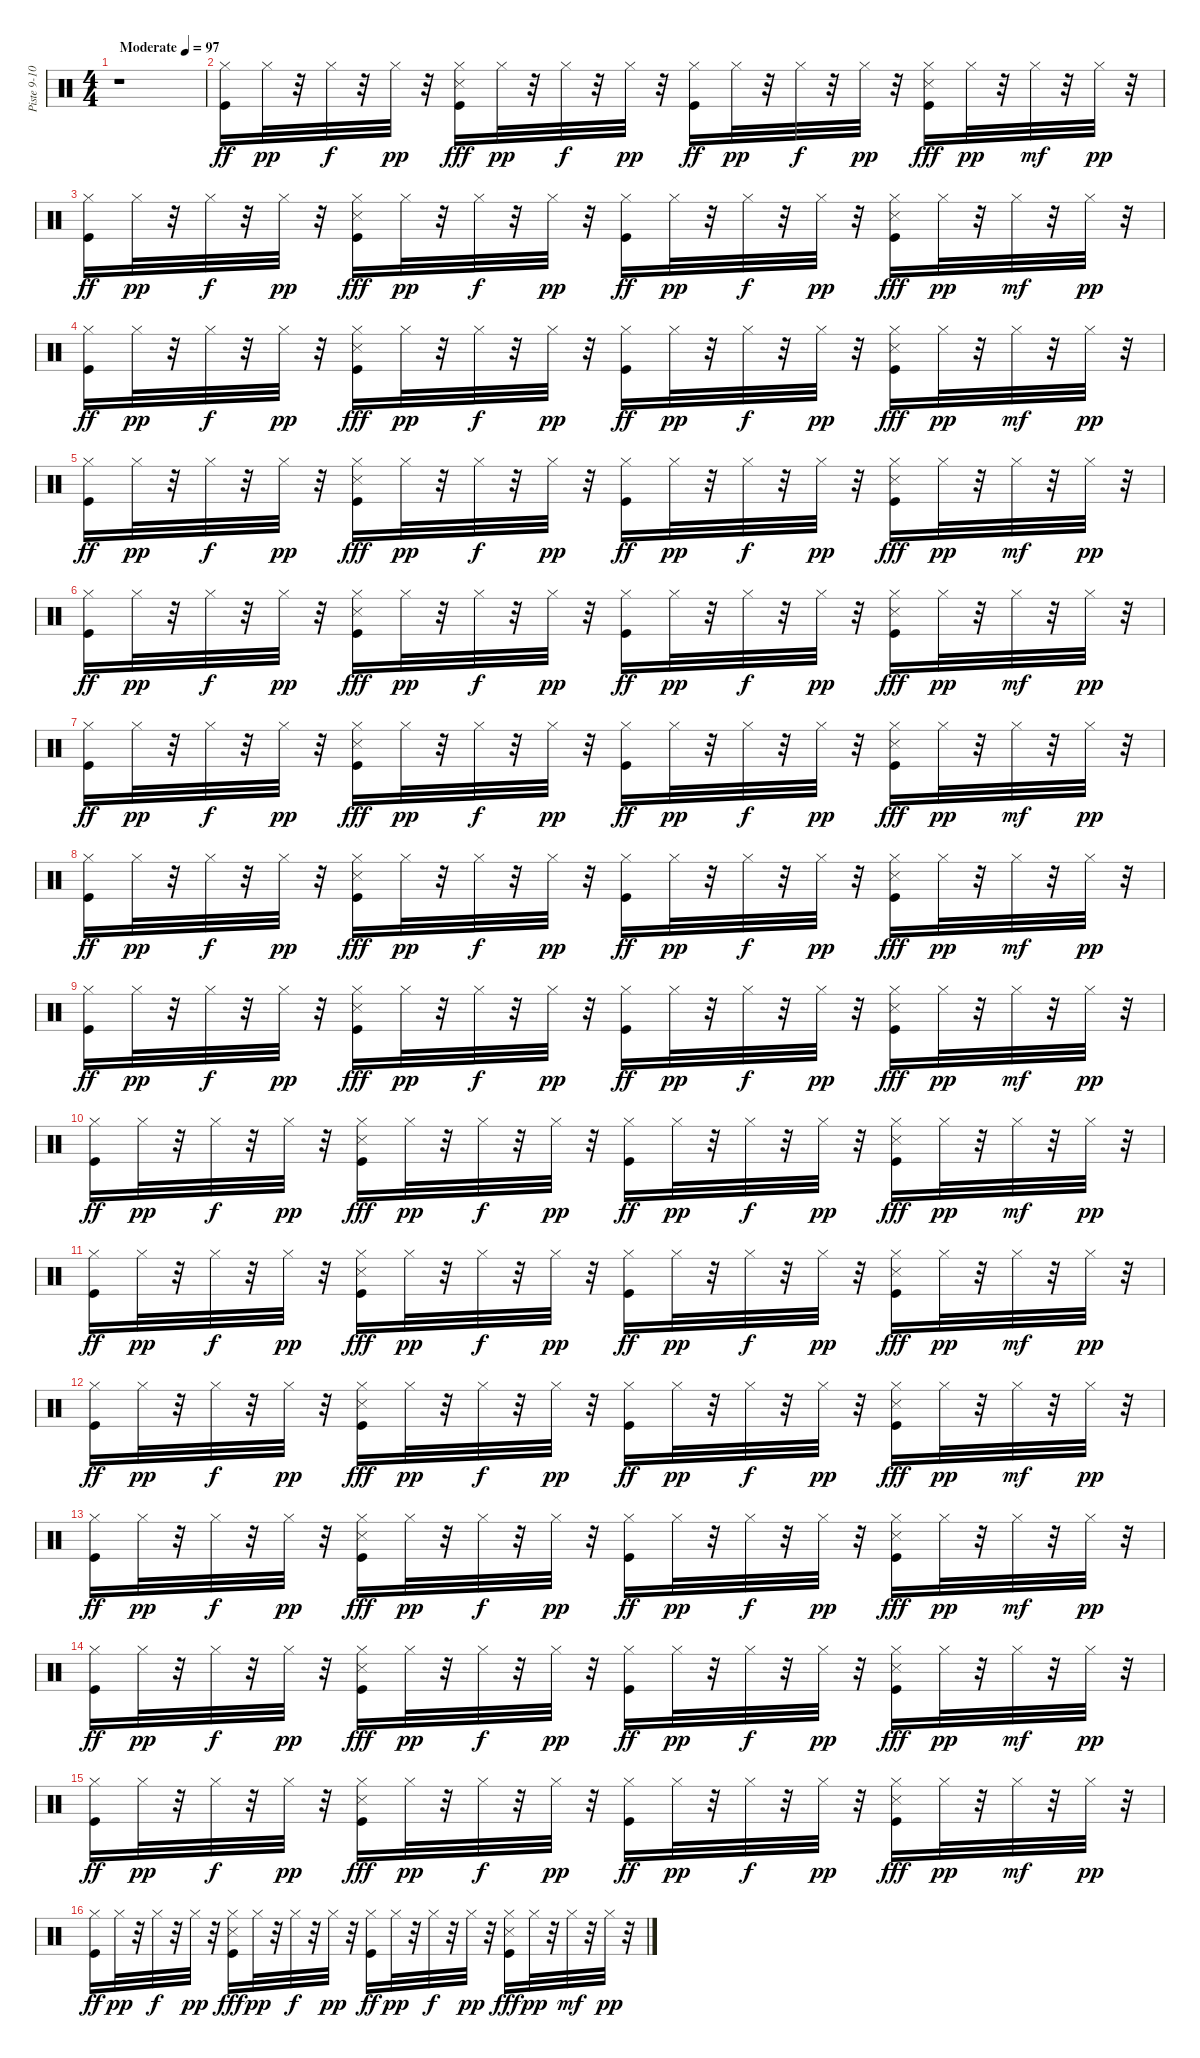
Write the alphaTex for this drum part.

\track ("Piste 9-10-11-12-13-14" "Piste 9-10") {instrument percussion}
\staff {score}
\articulation defaults
\ts (4 4)
\tempo (97 "Moderate")
\clef neutral
\ks c
r.1{dy ff} |
("Hi-Hat (closed)" "Kick (hit)").16 "Hi-Hat (closed)".32{dy pp} r.32 "Hi-Hat (closed)".32{dy f} r.32 "Hi-Hat (closed)".32{dy pp} r.32 ("Hi-Hat (closed)" "Kick (hit)" "Snare (side stick) 3").16{dy fff} "Hi-Hat (closed)".32{dy pp} r.32 "Hi-Hat (closed)".32{dy f} r.32 "Hi-Hat (closed)".32{dy pp} r.32 ("Hi-Hat (closed)" "Kick (hit)").16{dy ff} "Hi-Hat (closed)".32{dy pp} r.32 "Hi-Hat (closed)".32{dy f} r.32 "Hi-Hat (closed)".32{dy pp} r.32 ("Hi-Hat (closed)" "Kick (hit)" "Snare (side stick) 3").16{dy fff} "Hi-Hat (closed)".32{dy pp} r.32 "Hi-Hat (closed)".32{dy mf} r.32 "Hi-Hat (closed)".32{dy pp} r.32 |
("Hi-Hat (closed)" "Kick (hit)").16{dy ff} "Hi-Hat (closed)".32{dy pp} r.32 "Hi-Hat (closed)".32{dy f} r.32 "Hi-Hat (closed)".32{dy pp} r.32 ("Hi-Hat (closed)" "Kick (hit)" "Snare (side stick) 3").16{dy fff} "Hi-Hat (closed)".32{dy pp} r.32 "Hi-Hat (closed)".32{dy f} r.32 "Hi-Hat (closed)".32{dy pp} r.32 ("Hi-Hat (closed)" "Kick (hit)").16{dy ff} "Hi-Hat (closed)".32{dy pp} r.32 "Hi-Hat (closed)".32{dy f} r.32 "Hi-Hat (closed)".32{dy pp} r.32 ("Hi-Hat (closed)" "Kick (hit)" "Snare (side stick) 3").16{dy fff} "Hi-Hat (closed)".32{dy pp} r.32 "Hi-Hat (closed)".32{dy mf} r.32 "Hi-Hat (closed)".32{dy pp} r.32 |
("Hi-Hat (closed)" "Kick (hit)").16{dy ff} "Hi-Hat (closed)".32{dy pp} r.32 "Hi-Hat (closed)".32{dy f} r.32 "Hi-Hat (closed)".32{dy pp} r.32 ("Hi-Hat (closed)" "Kick (hit)" "Snare (side stick) 3").16{dy fff} "Hi-Hat (closed)".32{dy pp} r.32 "Hi-Hat (closed)".32{dy f} r.32 "Hi-Hat (closed)".32{dy pp} r.32 ("Hi-Hat (closed)" "Kick (hit)").16{dy ff} "Hi-Hat (closed)".32{dy pp} r.32 "Hi-Hat (closed)".32{dy f} r.32 "Hi-Hat (closed)".32{dy pp} r.32 ("Hi-Hat (closed)" "Kick (hit)" "Snare (side stick) 3").16{dy fff} "Hi-Hat (closed)".32{dy pp} r.32 "Hi-Hat (closed)".32{dy mf} r.32 "Hi-Hat (closed)".32{dy pp} r.32 |
("Hi-Hat (closed)" "Kick (hit)").16{dy ff} "Hi-Hat (closed)".32{dy pp} r.32 "Hi-Hat (closed)".32{dy f} r.32 "Hi-Hat (closed)".32{dy pp} r.32 ("Hi-Hat (closed)" "Kick (hit)" "Snare (side stick) 3").16{dy fff} "Hi-Hat (closed)".32{dy pp} r.32 "Hi-Hat (closed)".32{dy f} r.32 "Hi-Hat (closed)".32{dy pp} r.32 ("Hi-Hat (closed)" "Kick (hit)").16{dy ff} "Hi-Hat (closed)".32{dy pp} r.32 "Hi-Hat (closed)".32{dy f} r.32 "Hi-Hat (closed)".32{dy pp} r.32 ("Hi-Hat (closed)" "Kick (hit)" "Snare (side stick) 3").16{dy fff} "Hi-Hat (closed)".32{dy pp} r.32 "Hi-Hat (closed)".32{dy mf} r.32 "Hi-Hat (closed)".32{dy pp} r.32 |
("Hi-Hat (closed)" "Kick (hit)").16{dy ff} "Hi-Hat (closed)".32{dy pp} r.32 "Hi-Hat (closed)".32{dy f} r.32 "Hi-Hat (closed)".32{dy pp} r.32 ("Hi-Hat (closed)" "Kick (hit)" "Snare (side stick) 3").16{dy fff} "Hi-Hat (closed)".32{dy pp} r.32 "Hi-Hat (closed)".32{dy f} r.32 "Hi-Hat (closed)".32{dy pp} r.32 ("Hi-Hat (closed)" "Kick (hit)").16{dy ff} "Hi-Hat (closed)".32{dy pp} r.32 "Hi-Hat (closed)".32{dy f} r.32 "Hi-Hat (closed)".32{dy pp} r.32 ("Hi-Hat (closed)" "Kick (hit)" "Snare (side stick) 3").16{dy fff} "Hi-Hat (closed)".32{dy pp} r.32 "Hi-Hat (closed)".32{dy mf} r.32 "Hi-Hat (closed)".32{dy pp} r.32 |
("Hi-Hat (closed)" "Kick (hit)").16{dy ff} "Hi-Hat (closed)".32{dy pp} r.32 "Hi-Hat (closed)".32{dy f} r.32 "Hi-Hat (closed)".32{dy pp} r.32 ("Hi-Hat (closed)" "Kick (hit)" "Snare (side stick) 3").16{dy fff} "Hi-Hat (closed)".32{dy pp} r.32 "Hi-Hat (closed)".32{dy f} r.32 "Hi-Hat (closed)".32{dy pp} r.32 ("Hi-Hat (closed)" "Kick (hit)").16{dy ff} "Hi-Hat (closed)".32{dy pp} r.32 "Hi-Hat (closed)".32{dy f} r.32 "Hi-Hat (closed)".32{dy pp} r.32 ("Hi-Hat (closed)" "Kick (hit)" "Snare (side stick) 3").16{dy fff} "Hi-Hat (closed)".32{dy pp} r.32 "Hi-Hat (closed)".32{dy mf} r.32 "Hi-Hat (closed)".32{dy pp} r.32 |
("Hi-Hat (closed)" "Kick (hit)").16{dy ff} "Hi-Hat (closed)".32{dy pp} r.32 "Hi-Hat (closed)".32{dy f} r.32 "Hi-Hat (closed)".32{dy pp} r.32 ("Hi-Hat (closed)" "Kick (hit)" "Snare (side stick) 3").16{dy fff} "Hi-Hat (closed)".32{dy pp} r.32 "Hi-Hat (closed)".32{dy f} r.32 "Hi-Hat (closed)".32{dy pp} r.32 ("Hi-Hat (closed)" "Kick (hit)").16{dy ff} "Hi-Hat (closed)".32{dy pp} r.32 "Hi-Hat (closed)".32{dy f} r.32 "Hi-Hat (closed)".32{dy pp} r.32 ("Hi-Hat (closed)" "Kick (hit)" "Snare (side stick) 3").16{dy fff} "Hi-Hat (closed)".32{dy pp} r.32 "Hi-Hat (closed)".32{dy mf} r.32 "Hi-Hat (closed)".32{dy pp} r.32 |
("Hi-Hat (closed)" "Kick (hit)").16{dy ff} "Hi-Hat (closed)".32{dy pp} r.32 "Hi-Hat (closed)".32{dy f} r.32 "Hi-Hat (closed)".32{dy pp} r.32 ("Hi-Hat (closed)" "Kick (hit)" "Snare (side stick) 3").16{dy fff} "Hi-Hat (closed)".32{dy pp} r.32 "Hi-Hat (closed)".32{dy f} r.32 "Hi-Hat (closed)".32{dy pp} r.32 ("Hi-Hat (closed)" "Kick (hit)").16{dy ff} "Hi-Hat (closed)".32{dy pp} r.32 "Hi-Hat (closed)".32{dy f} r.32 "Hi-Hat (closed)".32{dy pp} r.32 ("Hi-Hat (closed)" "Kick (hit)" "Snare (side stick) 3").16{dy fff} "Hi-Hat (closed)".32{dy pp} r.32 "Hi-Hat (closed)".32{dy mf} r.32 "Hi-Hat (closed)".32{dy pp} r.32 |
("Hi-Hat (closed)" "Kick (hit)").16{dy ff} "Hi-Hat (closed)".32{dy pp} r.32 "Hi-Hat (closed)".32{dy f} r.32 "Hi-Hat (closed)".32{dy pp} r.32 ("Hi-Hat (closed)" "Kick (hit)" "Snare (side stick) 3").16{dy fff} "Hi-Hat (closed)".32{dy pp} r.32 "Hi-Hat (closed)".32{dy f} r.32 "Hi-Hat (closed)".32{dy pp} r.32 ("Hi-Hat (closed)" "Kick (hit)").16{dy ff} "Hi-Hat (closed)".32{dy pp} r.32 "Hi-Hat (closed)".32{dy f} r.32 "Hi-Hat (closed)".32{dy pp} r.32 ("Hi-Hat (closed)" "Kick (hit)" "Snare (side stick) 3").16{dy fff} "Hi-Hat (closed)".32{dy pp} r.32 "Hi-Hat (closed)".32{dy mf} r.32 "Hi-Hat (closed)".32{dy pp} r.32 |
("Hi-Hat (closed)" "Kick (hit)").16{dy ff} "Hi-Hat (closed)".32{dy pp} r.32 "Hi-Hat (closed)".32{dy f} r.32 "Hi-Hat (closed)".32{dy pp} r.32 ("Hi-Hat (closed)" "Kick (hit)" "Snare (side stick) 3").16{dy fff} "Hi-Hat (closed)".32{dy pp} r.32 "Hi-Hat (closed)".32{dy f} r.32 "Hi-Hat (closed)".32{dy pp} r.32 ("Hi-Hat (closed)" "Kick (hit)").16{dy ff} "Hi-Hat (closed)".32{dy pp} r.32 "Hi-Hat (closed)".32{dy f} r.32 "Hi-Hat (closed)".32{dy pp} r.32 ("Hi-Hat (closed)" "Kick (hit)" "Snare (side stick) 3").16{dy fff} "Hi-Hat (closed)".32{dy pp} r.32 "Hi-Hat (closed)".32{dy mf} r.32 "Hi-Hat (closed)".32{dy pp} r.32 |
("Hi-Hat (closed)" "Kick (hit)").16{dy ff} "Hi-Hat (closed)".32{dy pp} r.32 "Hi-Hat (closed)".32{dy f} r.32 "Hi-Hat (closed)".32{dy pp} r.32 ("Hi-Hat (closed)" "Kick (hit)" "Snare (side stick) 3").16{dy fff} "Hi-Hat (closed)".32{dy pp} r.32 "Hi-Hat (closed)".32{dy f} r.32 "Hi-Hat (closed)".32{dy pp} r.32 ("Hi-Hat (closed)" "Kick (hit)").16{dy ff} "Hi-Hat (closed)".32{dy pp} r.32 "Hi-Hat (closed)".32{dy f} r.32 "Hi-Hat (closed)".32{dy pp} r.32 ("Hi-Hat (closed)" "Kick (hit)" "Snare (side stick) 3").16{dy fff} "Hi-Hat (closed)".32{dy pp} r.32 "Hi-Hat (closed)".32{dy mf} r.32 "Hi-Hat (closed)".32{dy pp} r.32 |
("Hi-Hat (closed)" "Kick (hit)").16{dy ff} "Hi-Hat (closed)".32{dy pp} r.32 "Hi-Hat (closed)".32{dy f} r.32 "Hi-Hat (closed)".32{dy pp} r.32 ("Hi-Hat (closed)" "Kick (hit)" "Snare (side stick) 3").16{dy fff} "Hi-Hat (closed)".32{dy pp} r.32 "Hi-Hat (closed)".32{dy f} r.32 "Hi-Hat (closed)".32{dy pp} r.32 ("Hi-Hat (closed)" "Kick (hit)").16{dy ff} "Hi-Hat (closed)".32{dy pp} r.32 "Hi-Hat (closed)".32{dy f} r.32 "Hi-Hat (closed)".32{dy pp} r.32 ("Hi-Hat (closed)" "Kick (hit)" "Snare (side stick) 3").16{dy fff} "Hi-Hat (closed)".32{dy pp} r.32 "Hi-Hat (closed)".32{dy mf} r.32 "Hi-Hat (closed)".32{dy pp} r.32 |
("Hi-Hat (closed)" "Kick (hit)").16{dy ff} "Hi-Hat (closed)".32{dy pp} r.32 "Hi-Hat (closed)".32{dy f} r.32 "Hi-Hat (closed)".32{dy pp} r.32 ("Hi-Hat (closed)" "Kick (hit)" "Snare (side stick) 3").16{dy fff} "Hi-Hat (closed)".32{dy pp} r.32 "Hi-Hat (closed)".32{dy f} r.32 "Hi-Hat (closed)".32{dy pp} r.32 ("Hi-Hat (closed)" "Kick (hit)").16{dy ff} "Hi-Hat (closed)".32{dy pp} r.32 "Hi-Hat (closed)".32{dy f} r.32 "Hi-Hat (closed)".32{dy pp} r.32 ("Hi-Hat (closed)" "Kick (hit)" "Snare (side stick) 3").16{dy fff} "Hi-Hat (closed)".32{dy pp} r.32 "Hi-Hat (closed)".32{dy mf} r.32 "Hi-Hat (closed)".32{dy pp} r.32 |
("Hi-Hat (closed)" "Kick (hit)").16{dy ff} "Hi-Hat (closed)".32{dy pp} r.32 "Hi-Hat (closed)".32{dy f} r.32 "Hi-Hat (closed)".32{dy pp} r.32 ("Hi-Hat (closed)" "Kick (hit)" "Snare (side stick) 3").16{dy fff} "Hi-Hat (closed)".32{dy pp} r.32 "Hi-Hat (closed)".32{dy f} r.32 "Hi-Hat (closed)".32{dy pp} r.32 ("Hi-Hat (closed)" "Kick (hit)").16{dy ff} "Hi-Hat (closed)".32{dy pp} r.32 "Hi-Hat (closed)".32{dy f} r.32 "Hi-Hat (closed)".32{dy pp} r.32 ("Hi-Hat (closed)" "Kick (hit)" "Snare (side stick) 3").16{dy fff} "Hi-Hat (closed)".32{dy pp} r.32 "Hi-Hat (closed)".32{dy mf} r.32 "Hi-Hat (closed)".32{dy pp} r.32 |
("Hi-Hat (closed)" "Kick (hit)").16{dy ff} "Hi-Hat (closed)".32{dy pp} r.32 "Hi-Hat (closed)".32{dy f} r.32 "Hi-Hat (closed)".32{dy pp} r.32 ("Hi-Hat (closed)" "Kick (hit)" "Snare (side stick) 3").16{dy fff} "Hi-Hat (closed)".32{dy pp} r.32 "Hi-Hat (closed)".32{dy f} r.32 "Hi-Hat (closed)".32{dy pp} r.32 ("Hi-Hat (closed)" "Kick (hit)").16{dy ff} "Hi-Hat (closed)".32{dy pp} r.32 "Hi-Hat (closed)".32{dy f} r.32 "Hi-Hat (closed)".32{dy pp} r.32 ("Hi-Hat (closed)" "Kick (hit)" "Snare (side stick) 3").16{dy fff} "Hi-Hat (closed)".32{dy pp} r.32 "Hi-Hat (closed)".32{dy mf} r.32 "Hi-Hat (closed)".32{dy pp} r.32
